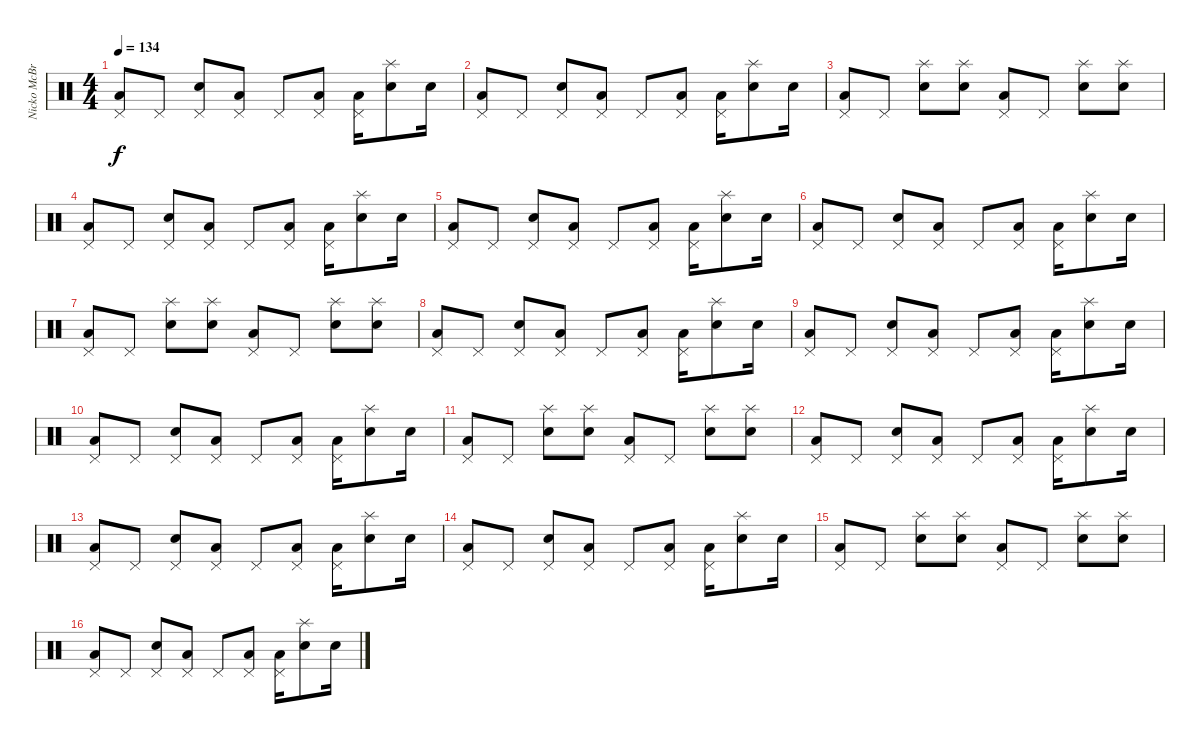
\track ("Nicko McBrian" "Nicko McBr") {instrument percussion}
\staff {score}
\articulation defaults
\ts (4 4)
\tempo 134
\clef neutral
\ks c
("Low Floor Tom (hit)" "Pedal Hi-Hat (hit)").8{dy f} "Pedal Hi-Hat (hit)".8 ("Electric Snare (hit)" "Pedal Hi-Hat (hit)").8 ("Low Floor Tom (hit)" "Pedal Hi-Hat (hit)").8 "Pedal Hi-Hat (hit)".8 ("Low Floor Tom (hit)" "Pedal Hi-Hat (hit)").8 ("Low Floor Tom (hit)" "Pedal Hi-Hat (hit)").16 ("Electric Snare (hit)" "Splash (hit)").8 "Electric Snare (hit)".16 |
("Low Floor Tom (hit)" "Pedal Hi-Hat (hit)").8 "Pedal Hi-Hat (hit)".8 ("Electric Snare (hit)" "Pedal Hi-Hat (hit)").8 ("Low Floor Tom (hit)" "Pedal Hi-Hat (hit)").8 "Pedal Hi-Hat (hit)".8 ("Low Floor Tom (hit)" "Pedal Hi-Hat (hit)").8 ("Low Floor Tom (hit)" "Pedal Hi-Hat (hit)").16 ("Electric Snare (hit)" "Splash (hit)").8 "Electric Snare (hit)".16 |
("Low Floor Tom (hit)" "Pedal Hi-Hat (hit)").8 "Pedal Hi-Hat (hit)".8 ("Electric Snare (hit)" "Splash (hit)").8 ("Electric Snare (hit)" "Splash (hit)").8 ("Low Floor Tom (hit)" "Pedal Hi-Hat (hit)").8 "Pedal Hi-Hat (hit)".8 ("Electric Snare (hit)" "Splash (hit)").8 ("Electric Snare (hit)" "Splash (hit)").8 |
("Low Floor Tom (hit)" "Pedal Hi-Hat (hit)").8 "Pedal Hi-Hat (hit)".8 ("Electric Snare (hit)" "Pedal Hi-Hat (hit)").8 ("Low Floor Tom (hit)" "Pedal Hi-Hat (hit)").8 "Pedal Hi-Hat (hit)".8 ("Low Floor Tom (hit)" "Pedal Hi-Hat (hit)").8 ("Low Floor Tom (hit)" "Pedal Hi-Hat (hit)").16 ("Electric Snare (hit)" "Splash (hit)").8 "Electric Snare (hit)".16 |
("Low Floor Tom (hit)" "Pedal Hi-Hat (hit)").8 "Pedal Hi-Hat (hit)".8 ("Electric Snare (hit)" "Pedal Hi-Hat (hit)").8 ("Low Floor Tom (hit)" "Pedal Hi-Hat (hit)").8 "Pedal Hi-Hat (hit)".8 ("Low Floor Tom (hit)" "Pedal Hi-Hat (hit)").8 ("Low Floor Tom (hit)" "Pedal Hi-Hat (hit)").16 ("Electric Snare (hit)" "Splash (hit)").8 "Electric Snare (hit)".16 |
("Low Floor Tom (hit)" "Pedal Hi-Hat (hit)").8 "Pedal Hi-Hat (hit)".8 ("Electric Snare (hit)" "Pedal Hi-Hat (hit)").8 ("Low Floor Tom (hit)" "Pedal Hi-Hat (hit)").8 "Pedal Hi-Hat (hit)".8 ("Low Floor Tom (hit)" "Pedal Hi-Hat (hit)").8 ("Low Floor Tom (hit)" "Pedal Hi-Hat (hit)").16 ("Electric Snare (hit)" "Splash (hit)").8 "Electric Snare (hit)".16 |
("Low Floor Tom (hit)" "Pedal Hi-Hat (hit)").8 "Pedal Hi-Hat (hit)".8 ("Electric Snare (hit)" "Splash (hit)").8 ("Electric Snare (hit)" "Splash (hit)").8 ("Low Floor Tom (hit)" "Pedal Hi-Hat (hit)").8 "Pedal Hi-Hat (hit)".8 ("Electric Snare (hit)" "Splash (hit)").8 ("Electric Snare (hit)" "Splash (hit)").8 |
("Low Floor Tom (hit)" "Pedal Hi-Hat (hit)").8 "Pedal Hi-Hat (hit)".8 ("Electric Snare (hit)" "Pedal Hi-Hat (hit)").8 ("Low Floor Tom (hit)" "Pedal Hi-Hat (hit)").8 "Pedal Hi-Hat (hit)".8 ("Low Floor Tom (hit)" "Pedal Hi-Hat (hit)").8 ("Low Floor Tom (hit)" "Pedal Hi-Hat (hit)").16 ("Electric Snare (hit)" "Splash (hit)").8 "Electric Snare (hit)".16 |
("Low Floor Tom (hit)" "Pedal Hi-Hat (hit)").8 "Pedal Hi-Hat (hit)".8 ("Electric Snare (hit)" "Pedal Hi-Hat (hit)").8 ("Low Floor Tom (hit)" "Pedal Hi-Hat (hit)").8 "Pedal Hi-Hat (hit)".8 ("Low Floor Tom (hit)" "Pedal Hi-Hat (hit)").8 ("Low Floor Tom (hit)" "Pedal Hi-Hat (hit)").16 ("Electric Snare (hit)" "Splash (hit)").8 "Electric Snare (hit)".16 |
("Low Floor Tom (hit)" "Pedal Hi-Hat (hit)").8 "Pedal Hi-Hat (hit)".8 ("Electric Snare (hit)" "Pedal Hi-Hat (hit)").8 ("Low Floor Tom (hit)" "Pedal Hi-Hat (hit)").8 "Pedal Hi-Hat (hit)".8 ("Low Floor Tom (hit)" "Pedal Hi-Hat (hit)").8 ("Low Floor Tom (hit)" "Pedal Hi-Hat (hit)").16 ("Electric Snare (hit)" "Splash (hit)").8 "Electric Snare (hit)".16 |
("Low Floor Tom (hit)" "Pedal Hi-Hat (hit)").8 "Pedal Hi-Hat (hit)".8 ("Electric Snare (hit)" "Splash (hit)").8 ("Electric Snare (hit)" "Splash (hit)").8 ("Low Floor Tom (hit)" "Pedal Hi-Hat (hit)").8 "Pedal Hi-Hat (hit)".8 ("Electric Snare (hit)" "Splash (hit)").8 ("Electric Snare (hit)" "Splash (hit)").8 |
("Low Floor Tom (hit)" "Pedal Hi-Hat (hit)").8 "Pedal Hi-Hat (hit)".8 ("Electric Snare (hit)" "Pedal Hi-Hat (hit)").8 ("Low Floor Tom (hit)" "Pedal Hi-Hat (hit)").8 "Pedal Hi-Hat (hit)".8 ("Low Floor Tom (hit)" "Pedal Hi-Hat (hit)").8 ("Low Floor Tom (hit)" "Pedal Hi-Hat (hit)").16 ("Electric Snare (hit)" "Splash (hit)").8 "Electric Snare (hit)".16 |
("Low Floor Tom (hit)" "Pedal Hi-Hat (hit)").8 "Pedal Hi-Hat (hit)".8 ("Electric Snare (hit)" "Pedal Hi-Hat (hit)").8 ("Low Floor Tom (hit)" "Pedal Hi-Hat (hit)").8 "Pedal Hi-Hat (hit)".8 ("Low Floor Tom (hit)" "Pedal Hi-Hat (hit)").8 ("Low Floor Tom (hit)" "Pedal Hi-Hat (hit)").16 ("Electric Snare (hit)" "Splash (hit)").8 "Electric Snare (hit)".16 |
("Low Floor Tom (hit)" "Pedal Hi-Hat (hit)").8 "Pedal Hi-Hat (hit)".8 ("Electric Snare (hit)" "Pedal Hi-Hat (hit)").8 ("Low Floor Tom (hit)" "Pedal Hi-Hat (hit)").8 "Pedal Hi-Hat (hit)".8 ("Low Floor Tom (hit)" "Pedal Hi-Hat (hit)").8 ("Low Floor Tom (hit)" "Pedal Hi-Hat (hit)").16 ("Electric Snare (hit)" "Splash (hit)").8 "Electric Snare (hit)".16 |
("Low Floor Tom (hit)" "Pedal Hi-Hat (hit)").8 "Pedal Hi-Hat (hit)".8 ("Electric Snare (hit)" "Splash (hit)").8 ("Electric Snare (hit)" "Splash (hit)").8 ("Low Floor Tom (hit)" "Pedal Hi-Hat (hit)").8 "Pedal Hi-Hat (hit)".8 ("Electric Snare (hit)" "Splash (hit)").8 ("Electric Snare (hit)" "Splash (hit)").8 |
("Low Floor Tom (hit)" "Pedal Hi-Hat (hit)").8 "Pedal Hi-Hat (hit)".8 ("Electric Snare (hit)" "Pedal Hi-Hat (hit)").8 ("Low Floor Tom (hit)" "Pedal Hi-Hat (hit)").8 "Pedal Hi-Hat (hit)".8 ("Low Floor Tom (hit)" "Pedal Hi-Hat (hit)").8 ("Low Floor Tom (hit)" "Pedal Hi-Hat (hit)").16 ("Electric Snare (hit)" "Splash (hit)").8 "Electric Snare (hit)".16
